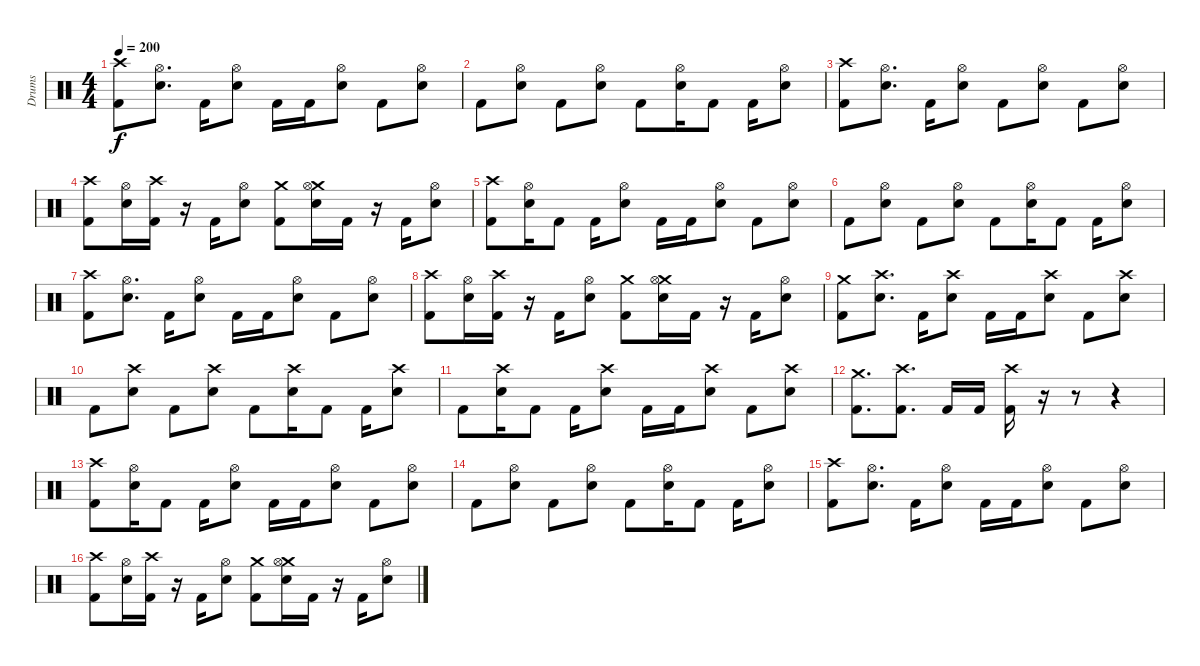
\track ("Drums" "Drums") {instrument percussion}
\staff {score}
\articulation defaults
\ts (4 4)
\tempo 200
\clef neutral
\ks c
("Crash high (hit)" "Kick (hit) 2").8{dy f} ("Hi-Hat (open)" "Electric Snare (hit)").8{d} "Kick (hit) 2".16 ("Hi-Hat (open)" "Electric Snare (hit)").8 "Kick (hit) 2".16 "Kick (hit) 2".16 ("Hi-Hat (open)" "Electric Snare (hit)").8 "Kick (hit) 2".8 ("Hi-Hat (open)" "Electric Snare (hit)").8 |
"Kick (hit) 2".8 ("Hi-Hat (open)" "Electric Snare (hit)").8 "Kick (hit) 2".8 ("Hi-Hat (open)" "Electric Snare (hit)").8 "Kick (hit) 2".8 ("Hi-Hat (open)" "Electric Snare (hit)").16 "Kick (hit) 2".8 "Kick (hit) 2".16 ("Hi-Hat (open)" "Electric Snare (hit)").8 |
("Crash high (hit)" "Kick (hit) 2").8 ("Hi-Hat (open)" "Electric Snare (hit)").8{d} "Kick (hit) 2".16 ("Hi-Hat (open)" "Electric Snare (hit)").8 "Kick (hit) 2".8 ("Hi-Hat (open)" "Electric Snare (hit)").8 "Kick (hit) 2".8 ("Hi-Hat (open)" "Electric Snare (hit)").8 |
("Crash high (hit)" "Kick (hit) 2").8 ("Hi-Hat (open)" "Electric Snare (hit)").16 ("Crash high (hit)" "Kick (hit) 2").16 r.16 "Kick (hit) 2".16 ("Hi-Hat (open)" "Electric Snare (hit)").8 ("Crash medium (hit)" "Kick (hit) 2").8 ("Crash medium (hit)" "Hi-Hat (open)" "Electric Snare (hit)").16 "Kick (hit) 2".16 r.16 "Kick (hit) 2".16 ("Hi-Hat (open)" "Electric Snare (hit)").8 |
("Crash high (hit)" "Kick (hit) 2").8 ("Hi-Hat (open)" "Electric Snare (hit)").16 "Kick (hit) 2".8 "Kick (hit) 2".16 ("Hi-Hat (open)" "Electric Snare (hit)").8 "Kick (hit) 2".16 "Kick (hit) 2".16 ("Hi-Hat (open)" "Electric Snare (hit)").8 "Kick (hit) 2".8 ("Hi-Hat (open)" "Electric Snare (hit)").8 |
"Kick (hit) 2".8 ("Hi-Hat (open)" "Electric Snare (hit)").8 "Kick (hit) 2".8 ("Hi-Hat (open)" "Electric Snare (hit)").8 "Kick (hit) 2".8 ("Hi-Hat (open)" "Electric Snare (hit)").16 "Kick (hit) 2".8 "Kick (hit) 2".16 ("Hi-Hat (open)" "Electric Snare (hit)").8 |
("Crash high (hit)" "Kick (hit) 2").8 ("Hi-Hat (open)" "Electric Snare (hit)").8{d} "Kick (hit) 2".16 ("Hi-Hat (open)" "Electric Snare (hit)").8 "Kick (hit) 2".16 "Kick (hit) 2".16 ("Hi-Hat (open)" "Electric Snare (hit)").8 "Kick (hit) 2".8 ("Hi-Hat (open)" "Electric Snare (hit)").8 |
("Crash high (hit)" "Kick (hit) 2").8 ("Hi-Hat (open)" "Electric Snare (hit)").16 ("Crash high (hit)" "Kick (hit) 2").16 r.16 "Kick (hit) 2".16 ("Hi-Hat (open)" "Electric Snare (hit)").8 ("Crash medium (hit)" "Kick (hit) 2").8 ("Crash medium (hit)" "Hi-Hat (open)" "Electric Snare (hit)").16 "Kick (hit) 2".16 r.16 "Kick (hit) 2".16 ("Hi-Hat (open)" "Electric Snare (hit)").8 |
("Crash medium (hit)" "Kick (hit) 2").8 ("Crash high (hit)" "Electric Snare (hit)").8{d} "Kick (hit) 2".16 ("Crash high (hit)" "Electric Snare (hit)").8 "Kick (hit) 2".16 "Kick (hit) 2".16 ("Crash high (hit)" "Electric Snare (hit)").8 "Kick (hit) 2".8 ("Crash high (hit)" "Electric Snare (hit)").8 |
"Kick (hit) 2".8 ("Crash high (hit)" "Electric Snare (hit)").8 "Kick (hit) 2".8 ("Crash high (hit)" "Electric Snare (hit)").8 "Kick (hit) 2".8 ("Crash high (hit)" "Electric Snare (hit)").16 "Kick (hit) 2".8 "Kick (hit) 2".16 ("Crash high (hit)" "Electric Snare (hit)").8 |
"Kick (hit) 2".8 ("Crash high (hit)" "Electric Snare (hit)").16 "Kick (hit) 2".8 "Kick (hit) 2".16 ("Crash high (hit)" "Electric Snare (hit)").8 "Kick (hit) 2".16 "Kick (hit) 2".16 ("Crash high (hit)" "Electric Snare (hit)").8 "Kick (hit) 2".8 ("Crash high (hit)" "Electric Snare (hit)").8 |
("Crash medium (hit)" "Kick (hit) 2").8{d} ("Crash high (hit)" "Kick (hit) 2").8{d} "Kick (hit) 2".16 "Kick (hit) 2".16 ("Crash high (hit)" "Kick (hit) 2").16 r.16 r.8 r.4 |
("Crash high (hit)" "Kick (hit) 2").8 ("Hi-Hat (open)" "Electric Snare (hit)").16 "Kick (hit) 2".8 "Kick (hit) 2".16 ("Hi-Hat (open)" "Electric Snare (hit)").8 "Kick (hit) 2".16 "Kick (hit) 2".16 ("Hi-Hat (open)" "Electric Snare (hit)").8 "Kick (hit) 2".8 ("Hi-Hat (open)" "Electric Snare (hit)").8 |
"Kick (hit) 2".8 ("Hi-Hat (open)" "Electric Snare (hit)").8 "Kick (hit) 2".8 ("Hi-Hat (open)" "Electric Snare (hit)").8 "Kick (hit) 2".8 ("Hi-Hat (open)" "Electric Snare (hit)").16 "Kick (hit) 2".8 "Kick (hit) 2".16 ("Hi-Hat (open)" "Electric Snare (hit)").8 |
("Crash high (hit)" "Kick (hit) 2").8 ("Hi-Hat (open)" "Electric Snare (hit)").8{d} "Kick (hit) 2".16 ("Hi-Hat (open)" "Electric Snare (hit)").8 "Kick (hit) 2".16 "Kick (hit) 2".16 ("Hi-Hat (open)" "Electric Snare (hit)").8 "Kick (hit) 2".8 ("Hi-Hat (open)" "Electric Snare (hit)").8 |
("Crash high (hit)" "Kick (hit) 2").8 ("Hi-Hat (open)" "Electric Snare (hit)").16 ("Crash high (hit)" "Kick (hit) 2").16 r.16 "Kick (hit) 2".16 ("Hi-Hat (open)" "Electric Snare (hit)").8 ("Crash medium (hit)" "Kick (hit) 2").8 ("Crash medium (hit)" "Hi-Hat (open)" "Electric Snare (hit)").16 "Kick (hit) 2".16 r.16 "Kick (hit) 2".16 ("Hi-Hat (open)" "Electric Snare (hit)").8
